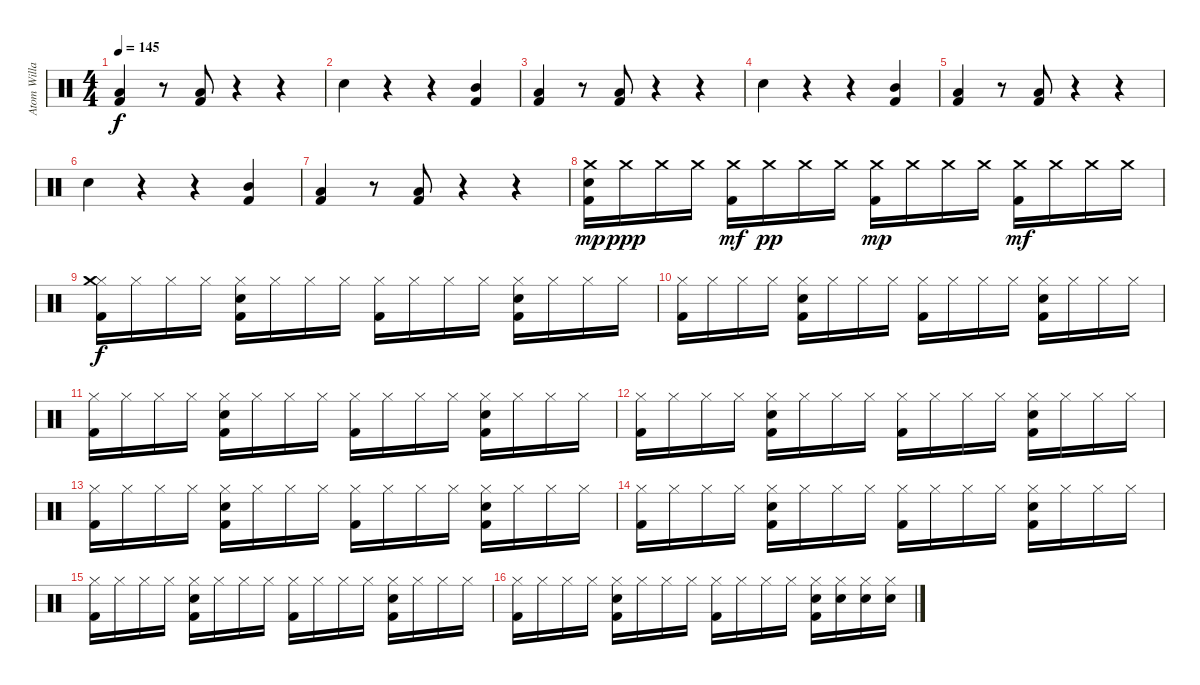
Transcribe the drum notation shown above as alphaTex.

\track ("Atom Willard (Drums)" "Atom Willa") {instrument percussion}
\staff {score}
\articulation defaults
\ts (4 4)
\tempo 145
\clef neutral
\ks c
("Low Tom (hit)" "Kick (hit) 2").4{dy f} r.8 ("Low Tom (hit)" "Kick (hit) 2").8 r.4 r.4 |
"Electric Snare (hit)".4 r.4 r.4 ("Mid Tom (hit)" "Kick (hit) 2").4 |
("Low Tom (hit)" "Kick (hit) 2").4 r.8 ("Low Tom (hit)" "Kick (hit) 2").8 r.4 r.4 |
"Electric Snare (hit)".4 r.4 r.4 ("Mid Tom (hit)" "Kick (hit) 2").4 |
("Low Tom (hit)" "Kick (hit) 2").4 r.8 ("Low Tom (hit)" "Kick (hit) 2").8 r.4 r.4 |
"Electric Snare (hit)".4 r.4 r.4 ("Mid Tom (hit)" "Kick (hit) 2").4 |
("Low Tom (hit)" "Kick (hit) 2").4 r.8 ("Low Tom (hit)" "Kick (hit) 2").8 r.4 r.4 |
("Crash medium (hit)" "Electric Snare (hit)" "Kick (hit) 2").16{dy mp} "Crash medium (hit)".16{dy ppp} "Crash medium (hit)".16 "Crash medium (hit)".16 ("Crash medium (hit)" "Kick (hit) 2").16{dy mf} "Crash medium (hit)".16{dy pp} "Crash medium (hit)".16 "Crash medium (hit)".16 ("Crash medium (hit)" "Kick (hit) 2").16{dy mp} "Crash medium (hit)".16 "Crash medium (hit)".16 "Crash medium (hit)".16 ("Crash medium (hit)" "Kick (hit) 2").16{dy mf} "Crash medium (hit)".16 "Crash medium (hit)".16 "Crash medium (hit)".16 |
("Hi-Hat (closed)" "Kick (hit) 2" "Crash medium (hit)").16{dy f} "Hi-Hat (closed)".16 "Hi-Hat (closed)".16 "Hi-Hat (closed)".16 ("Hi-Hat (closed)" "Electric Snare (hit)" "Kick (hit) 2").16 "Hi-Hat (closed)".16 "Hi-Hat (closed)".16 "Hi-Hat (closed)".16 ("Hi-Hat (closed)" "Kick (hit) 2").16 "Hi-Hat (closed)".16 "Hi-Hat (closed)".16 "Hi-Hat (closed)".16 ("Hi-Hat (closed)" "Electric Snare (hit)" "Kick (hit) 2").16 "Hi-Hat (closed)".16 "Hi-Hat (closed)".16 "Hi-Hat (closed)".16 |
("Hi-Hat (closed)" "Kick (hit) 2").16 "Hi-Hat (closed)".16 "Hi-Hat (closed)".16 "Hi-Hat (closed)".16 ("Hi-Hat (closed)" "Electric Snare (hit)" "Kick (hit) 2").16 "Hi-Hat (closed)".16 "Hi-Hat (closed)".16 "Hi-Hat (closed)".16 ("Hi-Hat (closed)" "Kick (hit) 2").16 "Hi-Hat (closed)".16 "Hi-Hat (closed)".16 "Hi-Hat (closed)".16 ("Hi-Hat (closed)" "Electric Snare (hit)" "Kick (hit) 2").16 "Hi-Hat (closed)".16 "Hi-Hat (closed)".16 "Hi-Hat (closed)".16 |
("Hi-Hat (closed)" "Kick (hit) 2").16 "Hi-Hat (closed)".16 "Hi-Hat (closed)".16 "Hi-Hat (closed)".16 ("Hi-Hat (closed)" "Electric Snare (hit)" "Kick (hit) 2").16 "Hi-Hat (closed)".16 "Hi-Hat (closed)".16 "Hi-Hat (closed)".16 ("Hi-Hat (closed)" "Kick (hit) 2").16 "Hi-Hat (closed)".16 "Hi-Hat (closed)".16 "Hi-Hat (closed)".16 ("Hi-Hat (closed)" "Electric Snare (hit)" "Kick (hit) 2").16 "Hi-Hat (closed)".16 "Hi-Hat (closed)".16 "Hi-Hat (closed)".16 |
("Hi-Hat (closed)" "Kick (hit) 2").16 "Hi-Hat (closed)".16 "Hi-Hat (closed)".16 "Hi-Hat (closed)".16 ("Hi-Hat (closed)" "Electric Snare (hit)" "Kick (hit) 2").16 "Hi-Hat (closed)".16 "Hi-Hat (closed)".16 "Hi-Hat (closed)".16 ("Hi-Hat (closed)" "Kick (hit) 2").16 "Hi-Hat (closed)".16 "Hi-Hat (closed)".16 "Hi-Hat (closed)".16 ("Hi-Hat (closed)" "Electric Snare (hit)" "Kick (hit) 2").16 "Hi-Hat (closed)".16 "Hi-Hat (closed)".16 "Hi-Hat (closed)".16 |
("Hi-Hat (closed)" "Kick (hit) 2").16 "Hi-Hat (closed)".16 "Hi-Hat (closed)".16 "Hi-Hat (closed)".16 ("Hi-Hat (closed)" "Electric Snare (hit)" "Kick (hit) 2").16 "Hi-Hat (closed)".16 "Hi-Hat (closed)".16 "Hi-Hat (closed)".16 ("Hi-Hat (closed)" "Kick (hit) 2").16 "Hi-Hat (closed)".16 "Hi-Hat (closed)".16 "Hi-Hat (closed)".16 ("Hi-Hat (closed)" "Electric Snare (hit)" "Kick (hit) 2").16 "Hi-Hat (closed)".16 "Hi-Hat (closed)".16 "Hi-Hat (closed)".16 |
("Hi-Hat (closed)" "Kick (hit) 2").16 "Hi-Hat (closed)".16 "Hi-Hat (closed)".16 "Hi-Hat (closed)".16 ("Hi-Hat (closed)" "Electric Snare (hit)" "Kick (hit) 2").16 "Hi-Hat (closed)".16 "Hi-Hat (closed)".16 "Hi-Hat (closed)".16 ("Hi-Hat (closed)" "Kick (hit) 2").16 "Hi-Hat (closed)".16 "Hi-Hat (closed)".16 "Hi-Hat (closed)".16 ("Hi-Hat (closed)" "Electric Snare (hit)" "Kick (hit) 2").16 "Hi-Hat (closed)".16 "Hi-Hat (closed)".16 "Hi-Hat (closed)".16 |
("Hi-Hat (closed)" "Kick (hit) 2").16 "Hi-Hat (closed)".16 "Hi-Hat (closed)".16 "Hi-Hat (closed)".16 ("Hi-Hat (closed)" "Electric Snare (hit)" "Kick (hit) 2").16 "Hi-Hat (closed)".16 "Hi-Hat (closed)".16 "Hi-Hat (closed)".16 ("Hi-Hat (closed)" "Kick (hit) 2").16 "Hi-Hat (closed)".16 "Hi-Hat (closed)".16 "Hi-Hat (closed)".16 ("Hi-Hat (closed)" "Electric Snare (hit)" "Kick (hit) 2").16 "Hi-Hat (closed)".16 "Hi-Hat (closed)".16 "Hi-Hat (closed)".16 |
("Hi-Hat (closed)" "Kick (hit) 2").16 "Hi-Hat (closed)".16 "Hi-Hat (closed)".16 "Hi-Hat (closed)".16 ("Hi-Hat (closed)" "Electric Snare (hit)" "Kick (hit) 2").16 "Hi-Hat (closed)".16 "Hi-Hat (closed)".16 "Hi-Hat (closed)".16 ("Hi-Hat (closed)" "Kick (hit) 2").16 "Hi-Hat (closed)".16 "Hi-Hat (closed)".16 "Hi-Hat (closed)".16 ("Hi-Hat (closed)" "Electric Snare (hit)" "Kick (hit) 2").16 ("Hi-Hat (closed)" "Electric Snare (hit)").16 ("Hi-Hat (closed)" "Electric Snare (hit)").16 ("Hi-Hat (closed)" "Electric Snare (hit)").16
